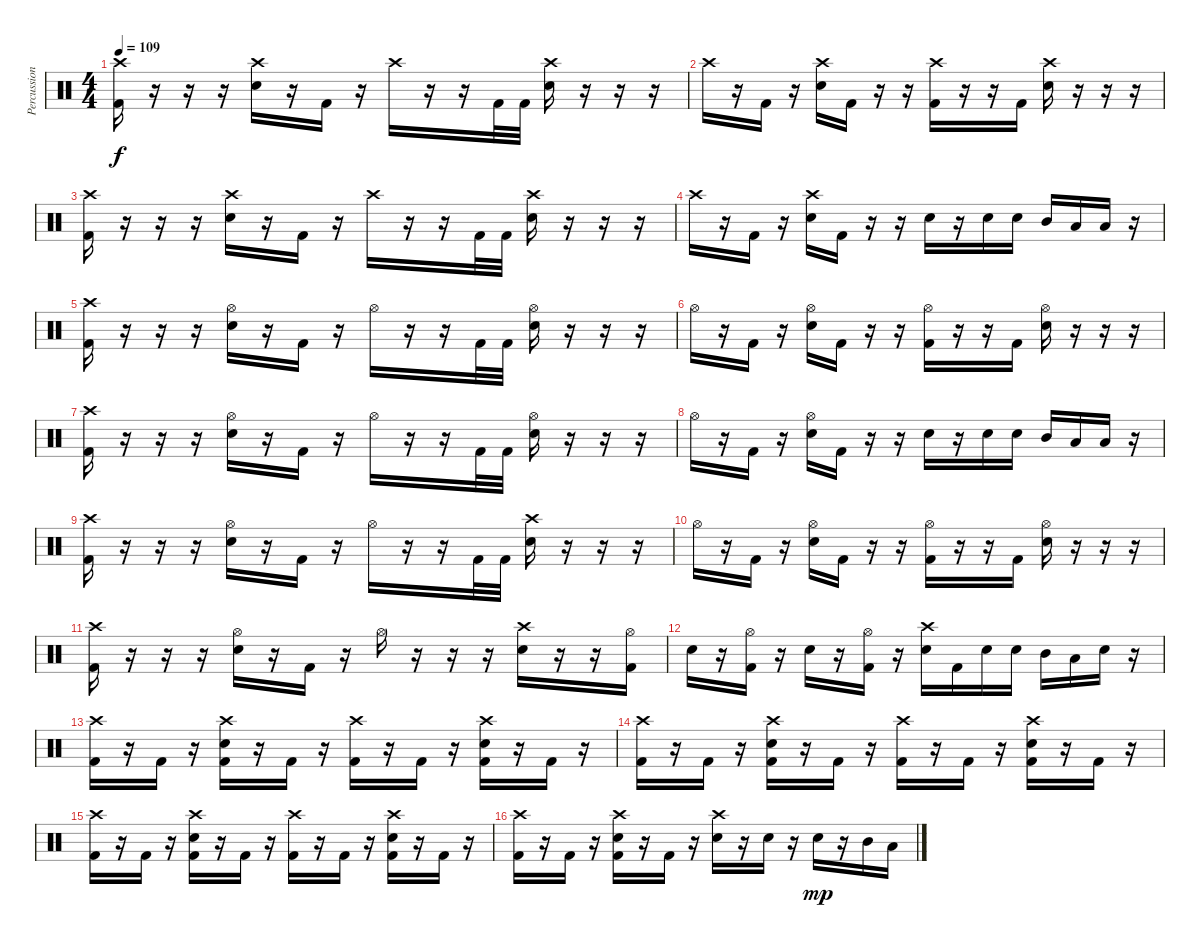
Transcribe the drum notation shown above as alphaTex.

\track ("Percussion" "Percussion") {instrument percussion}
\staff {score}
\articulation defaults
\ts (4 4)
\tempo 109
\clef neutral
\ks c
("Crash high (hit)" "Kick (hit) 2").16{dy f} r.16 r.16 r.16 ("Crash high (hit)" "Snare (hit) 2").16 r.16 "Kick (hit) 2".16 r.16 "Crash high (hit)".16 r.16 r.16 "Kick (hit) 2".32 "Kick (hit) 2".32 ("Crash high (hit)" "Snare (hit) 2").16 r.16 r.16 r.16 |
"Crash high (hit)".16 r.16 "Kick (hit) 2".16 r.16 ("Crash high (hit)" "Snare (hit) 2").16 "Kick (hit) 2".16 r.16 r.16 ("Crash high (hit)" "Kick (hit) 2").16 r.16 r.16 "Kick (hit) 2".16 ("Crash high (hit)" "Snare (hit) 2").16 r.16 r.16 r.16 |
("Crash high (hit)" "Kick (hit) 2").16 r.16 r.16 r.16 ("Crash high (hit)" "Snare (hit) 2").16 r.16 "Kick (hit) 2".16 r.16 "Crash high (hit)".16 r.16 r.16 "Kick (hit) 2".32 "Kick (hit) 2".32 ("Crash high (hit)" "Snare (hit) 2").16 r.16 r.16 r.16 |
"Crash high (hit)".16 r.16 "Kick (hit) 2".16 r.16 ("Crash high (hit)" "Snare (hit) 2").16 "Kick (hit) 2".16 r.16 r.16 "Snare (hit) 2".16 r.16 "Snare (hit) 2".16 "Snare (hit) 2".16 "Mid Tom (hit)".16 "Low Tom (hit)".16 "Low Tom (hit)".16 r.16 |
("Crash high (hit)" "Kick (hit) 2").16 r.16 r.16 r.16 ("Hi-Hat (open)" "Snare (hit) 2").16 r.16 "Kick (hit) 2".16 r.16 "Hi-Hat (open)".16 r.16 r.16 "Kick (hit) 2".32 "Kick (hit) 2".32 ("Hi-Hat (open)" "Snare (hit) 2").16 r.16 r.16 r.16 |
"Hi-Hat (open)".16 r.16 "Kick (hit) 2".16 r.16 ("Hi-Hat (open)" "Snare (hit) 2").16 "Kick (hit) 2".16 r.16 r.16 ("Hi-Hat (open)" "Kick (hit) 2").16 r.16 r.16 "Kick (hit) 2".16 ("Hi-Hat (open)" "Snare (hit) 2").16 r.16 r.16 r.16 |
("Crash high (hit)" "Kick (hit) 2").16 r.16 r.16 r.16 ("Hi-Hat (open)" "Snare (hit) 2").16 r.16 "Kick (hit) 2".16 r.16 "Hi-Hat (open)".16 r.16 r.16 "Kick (hit) 2".32 "Kick (hit) 2".32 ("Hi-Hat (open)" "Snare (hit) 2").16 r.16 r.16 r.16 |
"Hi-Hat (open)".16 r.16 "Kick (hit) 2".16 r.16 ("Hi-Hat (open)" "Snare (hit) 2").16 "Kick (hit) 2".16 r.16 r.16 "Snare (hit) 2".16 r.16 "Snare (hit) 2".16 "Snare (hit) 2".16 "Mid Tom (hit)".16 "Low Tom (hit)".16 "Low Tom (hit)".16 r.16 |
("Crash high (hit)" "Kick (hit) 2").16 r.16 r.16 r.16 ("Hi-Hat (open)" "Snare (hit) 2").16 r.16 "Kick (hit) 2".16 r.16 "Hi-Hat (open)".16 r.16 r.16 "Kick (hit) 2".32 "Kick (hit) 2".32 ("Crash high (hit)" "Snare (hit) 2").16 r.16 r.16 r.16 |
"Hi-Hat (open)".16 r.16 "Kick (hit) 2".16 r.16 ("Hi-Hat (open)" "Snare (hit) 2").16 "Kick (hit) 2".16 r.16 r.16 ("Hi-Hat (open)" "Kick (hit) 2").16 r.16 r.16 "Kick (hit) 2".16 ("Hi-Hat (open)" "Snare (hit) 2").16 r.16 r.16 r.16 |
("Crash high (hit)" "Kick (hit) 2").16 r.16 r.16 r.16 ("Hi-Hat (open)" "Snare (hit) 2").16 r.16 "Kick (hit) 2".16 r.16 "Hi-Hat (open)".16 r.16 r.16 r.16 ("Crash high (hit)" "Snare (hit) 2").16 r.16 r.16 ("Hi-Hat (open)" "Kick (hit) 2").16 |
"Snare (hit) 2".16 r.16 ("Hi-Hat (open)" "Kick (hit) 2").16 r.16 "Snare (hit) 2".16 r.16 ("Hi-Hat (open)" "Kick (hit) 2").16 r.16 ("Crash high (hit)" "Snare (hit) 2").16 "Kick (hit) 2".16 "Snare (hit) 2".16 "Snare (hit) 2".16 "Mid Tom (hit)".16 "Low Tom (hit)".16 "Snare (hit) 2".16 r.16 |
("Crash high (hit)" "Kick (hit) 2").16 r.16 "Kick (hit) 2".16 r.16 ("Crash high (hit)" "Snare (hit) 2" "Kick (hit) 2").16 r.16 "Kick (hit) 2".16 r.16 ("Crash high (hit)" "Kick (hit) 2").16 r.16 "Kick (hit) 2".16 r.16 ("Crash high (hit)" "Snare (hit) 2" "Kick (hit) 2").16 r.16 "Kick (hit) 2".16 r.16 |
("Crash high (hit)" "Kick (hit) 2").16 r.16 "Kick (hit) 2".16 r.16 ("Crash high (hit)" "Snare (hit) 2" "Kick (hit) 2").16 r.16 "Kick (hit) 2".16 r.16 ("Crash high (hit)" "Kick (hit) 2").16 r.16 "Kick (hit) 2".16 r.16 ("Crash high (hit)" "Snare (hit) 2" "Kick (hit) 2").16 r.16 "Kick (hit) 2".16 r.16 |
("Crash high (hit)" "Kick (hit) 2").16 r.16 "Kick (hit) 2".16 r.16 ("Crash high (hit)" "Snare (hit) 2" "Kick (hit) 2").16 r.16 "Kick (hit) 2".16 r.16 ("Crash high (hit)" "Kick (hit) 2").16 r.16 "Kick (hit) 2".16 r.16 ("Crash high (hit)" "Snare (hit) 2" "Kick (hit) 2").16 r.16 "Kick (hit) 2".16 r.16 |
("Crash high (hit)" "Kick (hit) 2").16 r.16 "Kick (hit) 2".16 r.16 ("Crash high (hit)" "Snare (hit) 2" "Kick (hit) 2").16 r.16 "Kick (hit) 2".16 r.16 ("Crash high (hit)" "Snare (hit) 2").16 r.16 "Snare (hit) 2".16 r.16 "Snare (hit) 2".16{dy mp} r.16 "Mid Tom (hit)".16 "Low Tom (hit)".16
